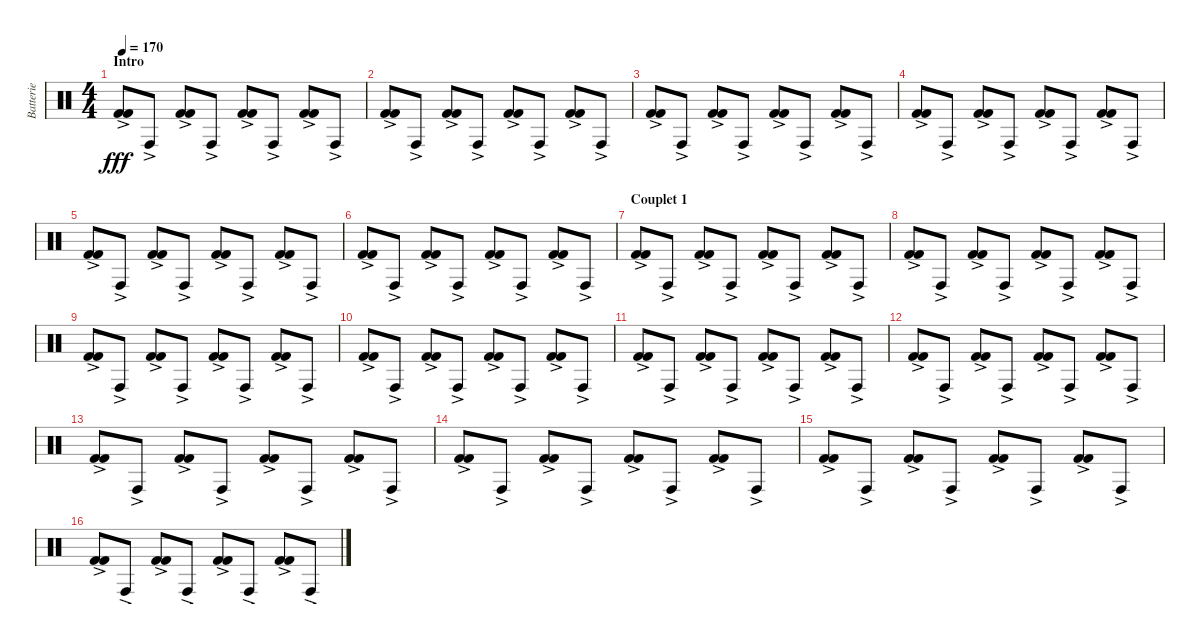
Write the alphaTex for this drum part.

\track ("Batterie" "Batterie") {instrument percussion}
\staff {score}
\articulation defaults
\ts (4 4)
\section ("" "Intro")
\tempo 170
\clef neutral
\ks c
("Kick (hit) 2"{ac} "Kick (hit) 2"{ac}).8{dy fff} "Conga high (hit)"{ac}.8 ("Kick (hit) 2"{ac} "Kick (hit) 2"{ac}).8 "Conga high (hit)"{ac}.8 ("Kick (hit) 2"{ac} "Kick (hit) 2"{ac}).8 "Conga high (hit)"{ac}.8 ("Kick (hit) 2"{ac} "Kick (hit) 2"{ac}).8 "Conga high (hit)"{ac}.8 |
("Kick (hit) 2"{ac} "Kick (hit) 2"{ac}).8 "Conga high (hit)"{ac}.8 ("Kick (hit) 2"{ac} "Kick (hit) 2"{ac}).8 "Conga high (hit)"{ac}.8 ("Kick (hit) 2"{ac} "Kick (hit) 2"{ac}).8 "Conga high (hit)"{ac}.8 ("Kick (hit) 2"{ac} "Kick (hit) 2"{ac}).8 "Conga high (hit)"{ac}.8 |
("Kick (hit) 2"{ac} "Kick (hit) 2"{ac}).8 "Conga high (hit)"{ac}.8 ("Kick (hit) 2"{ac} "Kick (hit) 2"{ac}).8 "Conga high (hit)"{ac}.8 ("Kick (hit) 2"{ac} "Kick (hit) 2"{ac}).8 "Conga high (hit)"{ac}.8 ("Kick (hit) 2"{ac} "Kick (hit) 2"{ac}).8 "Conga high (hit)"{ac}.8 |
("Kick (hit) 2"{ac} "Kick (hit) 2"{ac}).8 "Conga high (hit)"{ac}.8 ("Kick (hit) 2"{ac} "Kick (hit) 2"{ac}).8 "Conga high (hit)"{ac}.8 ("Kick (hit) 2"{ac} "Kick (hit) 2"{ac}).8 "Conga high (hit)"{ac}.8 ("Kick (hit) 2"{ac} "Kick (hit) 2"{ac}).8 "Conga high (hit)"{ac}.8 |
("Kick (hit) 2"{ac} "Kick (hit) 2"{ac}).8 "Conga high (hit)"{ac}.8 ("Kick (hit) 2"{ac} "Kick (hit) 2"{ac}).8 "Conga high (hit)"{ac}.8 ("Kick (hit) 2"{ac} "Kick (hit) 2"{ac}).8 "Conga high (hit)"{ac}.8 ("Kick (hit) 2"{ac} "Kick (hit) 2"{ac}).8 "Conga high (hit)"{ac}.8 |
("Kick (hit) 2"{ac} "Kick (hit) 2"{ac}).8 "Conga high (hit)"{ac}.8 ("Kick (hit) 2"{ac} "Kick (hit) 2"{ac}).8 "Conga high (hit)"{ac}.8 ("Kick (hit) 2"{ac} "Kick (hit) 2"{ac}).8 "Conga high (hit)"{ac}.8 ("Kick (hit) 2"{ac} "Kick (hit) 2"{ac}).8 "Conga high (hit)"{ac}.8 |
\section ("" "Couplet 1")
("Kick (hit) 2"{ac} "Kick (hit) 2"{ac}).8 "Conga high (hit)"{ac}.8 ("Kick (hit) 2"{ac} "Kick (hit) 2"{ac}).8 "Conga high (hit)"{ac}.8 ("Kick (hit) 2"{ac} "Kick (hit) 2"{ac}).8 "Conga high (hit)"{ac}.8 ("Kick (hit) 2"{ac} "Kick (hit) 2"{ac}).8 "Conga high (hit)"{ac}.8 |
("Kick (hit) 2"{ac} "Kick (hit) 2"{ac}).8 "Conga high (hit)"{ac}.8 ("Kick (hit) 2"{ac} "Kick (hit) 2"{ac}).8 "Conga high (hit)"{ac}.8 ("Kick (hit) 2"{ac} "Kick (hit) 2"{ac}).8 "Conga high (hit)"{ac}.8 ("Kick (hit) 2"{ac} "Kick (hit) 2"{ac}).8 "Conga high (hit)"{ac}.8 |
("Kick (hit) 2"{ac} "Kick (hit) 2"{ac}).8 "Conga high (hit)"{ac}.8 ("Kick (hit) 2"{ac} "Kick (hit) 2"{ac}).8 "Conga high (hit)"{ac}.8 ("Kick (hit) 2"{ac} "Kick (hit) 2"{ac}).8 "Conga high (hit)"{ac}.8 ("Kick (hit) 2"{ac} "Kick (hit) 2"{ac}).8 "Conga high (hit)"{ac}.8 |
("Kick (hit) 2"{ac} "Kick (hit) 2"{ac}).8 "Conga high (hit)"{ac}.8 ("Kick (hit) 2"{ac} "Kick (hit) 2"{ac}).8 "Conga high (hit)"{ac}.8 ("Kick (hit) 2"{ac} "Kick (hit) 2"{ac}).8 "Conga high (hit)"{ac}.8 ("Kick (hit) 2"{ac} "Kick (hit) 2"{ac}).8 "Conga high (hit)"{ac}.8 |
("Kick (hit) 2"{ac} "Kick (hit) 2"{ac}).8 "Conga high (hit)"{ac}.8 ("Kick (hit) 2"{ac} "Kick (hit) 2"{ac}).8 "Conga high (hit)"{ac}.8 ("Kick (hit) 2"{ac} "Kick (hit) 2"{ac}).8 "Conga high (hit)"{ac}.8 ("Kick (hit) 2"{ac} "Kick (hit) 2"{ac}).8 "Conga high (hit)"{ac}.8 |
("Kick (hit) 2"{ac} "Kick (hit) 2"{ac}).8 "Conga high (hit)"{ac}.8 ("Kick (hit) 2"{ac} "Kick (hit) 2"{ac}).8 "Conga high (hit)"{ac}.8 ("Kick (hit) 2"{ac} "Kick (hit) 2"{ac}).8 "Conga high (hit)"{ac}.8 ("Kick (hit) 2"{ac} "Kick (hit) 2"{ac}).8 "Conga high (hit)"{ac}.8 |
("Kick (hit) 2"{ac} "Kick (hit) 2"{ac}).8 "Conga high (hit)"{ac}.8 ("Kick (hit) 2"{ac} "Kick (hit) 2"{ac}).8 "Conga high (hit)"{ac}.8 ("Kick (hit) 2"{ac} "Kick (hit) 2"{ac}).8 "Conga high (hit)"{ac}.8 ("Kick (hit) 2"{ac} "Kick (hit) 2"{ac}).8 "Conga high (hit)"{ac}.8 |
("Kick (hit) 2"{ac} "Kick (hit) 2"{ac}).8 "Conga high (hit)"{ac}.8 ("Kick (hit) 2"{ac} "Kick (hit) 2"{ac}).8 "Conga high (hit)"{ac}.8 ("Kick (hit) 2"{ac} "Kick (hit) 2"{ac}).8 "Conga high (hit)"{ac}.8 ("Kick (hit) 2"{ac} "Kick (hit) 2"{ac}).8 "Conga high (hit)"{ac}.8 |
("Kick (hit) 2"{ac} "Kick (hit) 2"{ac}).8 "Conga high (hit)"{ac}.8 ("Kick (hit) 2"{ac} "Kick (hit) 2"{ac}).8 "Conga high (hit)"{ac}.8 ("Kick (hit) 2"{ac} "Kick (hit) 2"{ac}).8 "Conga high (hit)"{ac}.8 ("Kick (hit) 2"{ac} "Kick (hit) 2"{ac}).8 "Conga high (hit)"{ac}.8 |
("Kick (hit) 2"{ac} "Kick (hit) 2"{ac}).8 "Conga high (hit)"{ac}.8 ("Kick (hit) 2"{ac} "Kick (hit) 2"{ac}).8 "Conga high (hit)"{ac}.8 ("Kick (hit) 2"{ac} "Kick (hit) 2"{ac}).8 "Conga high (hit)"{ac}.8 ("Kick (hit) 2"{ac} "Kick (hit) 2"{ac}).8 "Conga high (hit)"{ac}.8
